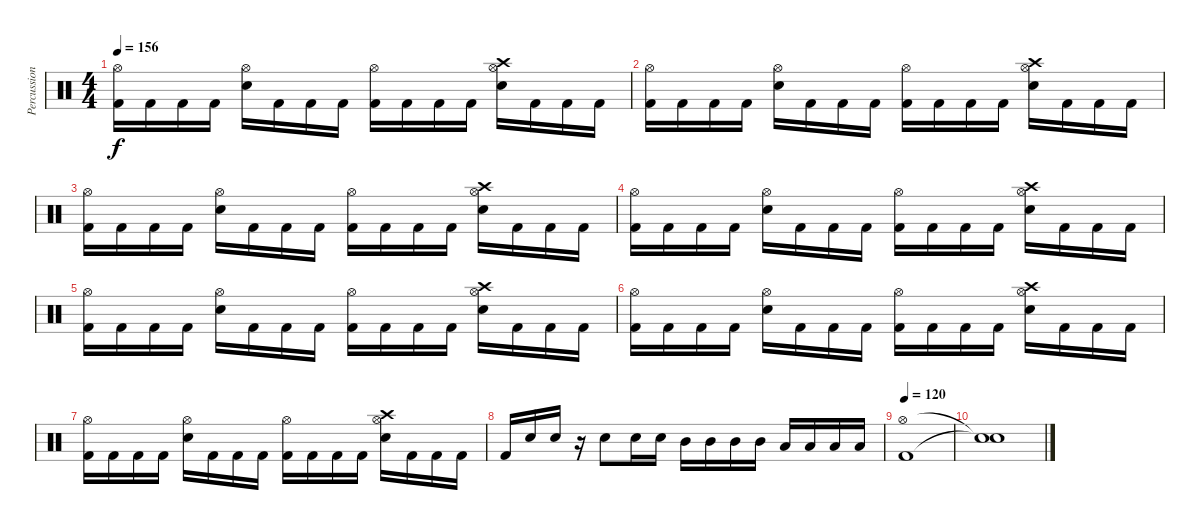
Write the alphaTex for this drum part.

\track ("Percussion" "Percussion") {instrument percussion}
\staff {score}
\articulation defaults
\ts (4 4)
\tempo 156
\clef neutral
\ks c
("Hi-Hat (open)" "Kick (hit) 2").16{dy f} "Kick (hit) 2".16 "Kick (hit) 2".16 "Kick (hit) 2".16 ("Hi-Hat (open)" "Snare (hit) 2").16 "Kick (hit) 2".16 "Kick (hit) 2".16 "Kick (hit) 2".16 ("Hi-Hat (open)" "Kick (hit) 2").16 "Kick (hit) 2".16 "Kick (hit) 2".16 "Kick (hit) 2".16 ("Crash high (hit)" "Hi-Hat (open)" "Snare (hit) 2").16 "Kick (hit) 2".16 "Kick (hit) 2".16 "Kick (hit) 2".16 |
("Hi-Hat (open)" "Kick (hit) 2").16 "Kick (hit) 2".16 "Kick (hit) 2".16 "Kick (hit) 2".16 ("Hi-Hat (open)" "Snare (hit) 2").16 "Kick (hit) 2".16 "Kick (hit) 2".16 "Kick (hit) 2".16 ("Hi-Hat (open)" "Kick (hit) 2").16 "Kick (hit) 2".16 "Kick (hit) 2".16 "Kick (hit) 2".16 ("Crash high (hit)" "Hi-Hat (open)" "Snare (hit) 2").16 "Kick (hit) 2".16 "Kick (hit) 2".16 "Kick (hit) 2".16 |
("Hi-Hat (open)" "Kick (hit) 2").16 "Kick (hit) 2".16 "Kick (hit) 2".16 "Kick (hit) 2".16 ("Hi-Hat (open)" "Snare (hit) 2").16 "Kick (hit) 2".16 "Kick (hit) 2".16 "Kick (hit) 2".16 ("Hi-Hat (open)" "Kick (hit) 2").16 "Kick (hit) 2".16 "Kick (hit) 2".16 "Kick (hit) 2".16 ("Crash high (hit)" "Hi-Hat (open)" "Snare (hit) 2").16 "Kick (hit) 2".16 "Kick (hit) 2".16 "Kick (hit) 2".16 |
("Hi-Hat (open)" "Kick (hit) 2").16 "Kick (hit) 2".16 "Kick (hit) 2".16 "Kick (hit) 2".16 ("Hi-Hat (open)" "Snare (hit) 2").16 "Kick (hit) 2".16 "Kick (hit) 2".16 "Kick (hit) 2".16 ("Hi-Hat (open)" "Kick (hit) 2").16 "Kick (hit) 2".16 "Kick (hit) 2".16 "Kick (hit) 2".16 ("Crash high (hit)" "Hi-Hat (open)" "Snare (hit) 2").16 "Kick (hit) 2".16 "Kick (hit) 2".16 "Kick (hit) 2".16 |
("Hi-Hat (open)" "Kick (hit) 2").16 "Kick (hit) 2".16 "Kick (hit) 2".16 "Kick (hit) 2".16 ("Hi-Hat (open)" "Snare (hit) 2").16 "Kick (hit) 2".16 "Kick (hit) 2".16 "Kick (hit) 2".16 ("Hi-Hat (open)" "Kick (hit) 2").16 "Kick (hit) 2".16 "Kick (hit) 2".16 "Kick (hit) 2".16 ("Crash high (hit)" "Hi-Hat (open)" "Snare (hit) 2").16 "Kick (hit) 2".16 "Kick (hit) 2".16 "Kick (hit) 2".16 |
("Hi-Hat (open)" "Kick (hit) 2").16 "Kick (hit) 2".16 "Kick (hit) 2".16 "Kick (hit) 2".16 ("Hi-Hat (open)" "Snare (hit) 2").16 "Kick (hit) 2".16 "Kick (hit) 2".16 "Kick (hit) 2".16 ("Hi-Hat (open)" "Kick (hit) 2").16 "Kick (hit) 2".16 "Kick (hit) 2".16 "Kick (hit) 2".16 ("Crash high (hit)" "Hi-Hat (open)" "Snare (hit) 2").16 "Kick (hit) 2".16 "Kick (hit) 2".16 "Kick (hit) 2".16 |
("Hi-Hat (open)" "Kick (hit) 2").16 "Kick (hit) 2".16 "Kick (hit) 2".16 "Kick (hit) 2".16 ("Hi-Hat (open)" "Snare (hit) 2").16 "Kick (hit) 2".16 "Kick (hit) 2".16 "Kick (hit) 2".16 ("Hi-Hat (open)" "Kick (hit) 2").16 "Kick (hit) 2".16 "Kick (hit) 2".16 "Kick (hit) 2".16 ("Crash high (hit)" "Hi-Hat (open)" "Snare (hit) 2").16 "Kick (hit) 2".16 "Kick (hit) 2".16 "Kick (hit) 2".16 |
"Kick (hit) 2".16 "Electric Snare (hit)".16 "Electric Snare (hit)".16 r.16 "Electric Snare (hit)".8 "Electric Snare (hit)".16 "Electric Snare (hit)".16 "Mid Tom (hit)".16 "Mid Tom (hit)".16 "Mid Tom (hit)".16 "Mid Tom (hit)".16 "Low Tom (hit)".16 "Low Tom (hit)".16 "Low Tom (hit)".16 "Low Tom (hit)".16 |
\tempo 120
("Hi-Hat (open)" "Kick (hit) 2").1 |
("Snare (hit)"{t} "Snare (hit)"{t}).1
